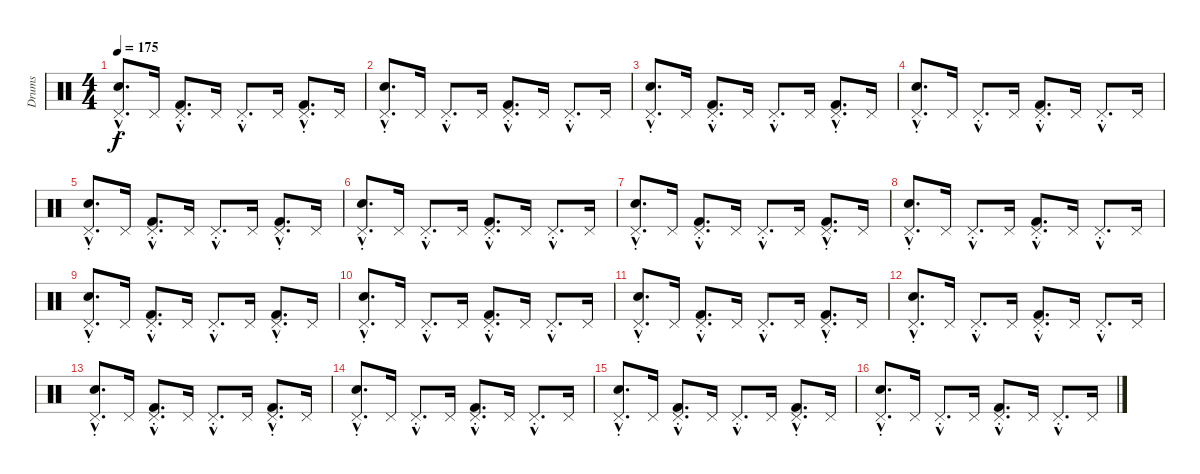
\track ("Drums" "Drums") {instrument percussion}
\staff {score}
\articulation defaults
\ts (4 4)
\tempo 175
\clef neutral
\ks c
("Electric Snare (hit)"{hac} "Pedal Hi-Hat (hit)"{hac st}).8{d dy f} "Pedal Hi-Hat (hit)".16 ("Pedal Hi-Hat (hit)"{hac st} "Kick (hit) 2"{hac}).8{d} "Pedal Hi-Hat (hit)".16 "Pedal Hi-Hat (hit)"{hac st}.8{d} "Pedal Hi-Hat (hit)".16 ("Kick (hit) 2"{hac} "Pedal Hi-Hat (hit)"{hac st}).8{d} "Pedal Hi-Hat (hit)".16 |
("Electric Snare (hit)"{hac} "Pedal Hi-Hat (hit)"{hac st}).8{d} "Pedal Hi-Hat (hit)".16 "Pedal Hi-Hat (hit)"{hac st}.8{d} "Pedal Hi-Hat (hit)".16 ("Pedal Hi-Hat (hit)"{hac st} "Kick (hit) 2"{hac}).8{d} "Pedal Hi-Hat (hit)".16 "Pedal Hi-Hat (hit)"{hac st}.8{d} "Pedal Hi-Hat (hit)".16 |
("Electric Snare (hit)"{hac} "Pedal Hi-Hat (hit)"{hac st}).8{d} "Pedal Hi-Hat (hit)".16 ("Pedal Hi-Hat (hit)"{hac st} "Kick (hit) 2"{hac}).8{d} "Pedal Hi-Hat (hit)".16 "Pedal Hi-Hat (hit)"{hac st}.8{d} "Pedal Hi-Hat (hit)".16 ("Kick (hit) 2"{hac} "Pedal Hi-Hat (hit)"{hac st}).8{d} "Pedal Hi-Hat (hit)".16 |
("Electric Snare (hit)"{hac} "Pedal Hi-Hat (hit)"{hac st}).8{d} "Pedal Hi-Hat (hit)".16 "Pedal Hi-Hat (hit)"{hac st}.8{d} "Pedal Hi-Hat (hit)".16 ("Pedal Hi-Hat (hit)"{hac st} "Kick (hit) 2"{hac}).8{d} "Pedal Hi-Hat (hit)".16 "Pedal Hi-Hat (hit)"{hac st}.8{d} "Pedal Hi-Hat (hit)".16 |
("Electric Snare (hit)"{hac} "Pedal Hi-Hat (hit)"{hac st}).8{d} "Pedal Hi-Hat (hit)".16 ("Pedal Hi-Hat (hit)"{hac st} "Kick (hit) 2"{hac}).8{d} "Pedal Hi-Hat (hit)".16 "Pedal Hi-Hat (hit)"{hac st}.8{d} "Pedal Hi-Hat (hit)".16 ("Kick (hit) 2"{hac} "Pedal Hi-Hat (hit)"{hac st}).8{d} "Pedal Hi-Hat (hit)".16 |
("Electric Snare (hit)"{hac} "Pedal Hi-Hat (hit)"{hac st}).8{d} "Pedal Hi-Hat (hit)".16 "Pedal Hi-Hat (hit)"{hac st}.8{d} "Pedal Hi-Hat (hit)".16 ("Pedal Hi-Hat (hit)"{hac st} "Kick (hit) 2"{hac}).8{d} "Pedal Hi-Hat (hit)".16 "Pedal Hi-Hat (hit)"{hac st}.8{d} "Pedal Hi-Hat (hit)".16 |
("Electric Snare (hit)"{hac} "Pedal Hi-Hat (hit)"{hac st}).8{d} "Pedal Hi-Hat (hit)".16 ("Pedal Hi-Hat (hit)"{hac st} "Kick (hit) 2"{hac}).8{d} "Pedal Hi-Hat (hit)".16 "Pedal Hi-Hat (hit)"{hac st}.8{d} "Pedal Hi-Hat (hit)".16 ("Kick (hit) 2"{hac} "Pedal Hi-Hat (hit)"{hac st}).8{d} "Pedal Hi-Hat (hit)".16 |
("Electric Snare (hit)"{hac} "Pedal Hi-Hat (hit)"{hac st}).8{d} "Pedal Hi-Hat (hit)".16 "Pedal Hi-Hat (hit)"{hac st}.8{d} "Pedal Hi-Hat (hit)".16 ("Pedal Hi-Hat (hit)"{hac st} "Kick (hit) 2"{hac}).8{d} "Pedal Hi-Hat (hit)".16 "Pedal Hi-Hat (hit)"{hac st}.8{d} "Pedal Hi-Hat (hit)".16 |
("Electric Snare (hit)"{hac} "Pedal Hi-Hat (hit)"{hac st}).8{d} "Pedal Hi-Hat (hit)".16 ("Pedal Hi-Hat (hit)"{hac st} "Kick (hit) 2"{hac}).8{d} "Pedal Hi-Hat (hit)".16 "Pedal Hi-Hat (hit)"{hac st}.8{d} "Pedal Hi-Hat (hit)".16 ("Kick (hit) 2"{hac} "Pedal Hi-Hat (hit)"{hac st}).8{d} "Pedal Hi-Hat (hit)".16 |
("Electric Snare (hit)"{hac} "Pedal Hi-Hat (hit)"{hac st}).8{d} "Pedal Hi-Hat (hit)".16 "Pedal Hi-Hat (hit)"{hac st}.8{d} "Pedal Hi-Hat (hit)".16 ("Pedal Hi-Hat (hit)"{hac st} "Kick (hit) 2"{hac}).8{d} "Pedal Hi-Hat (hit)".16 "Pedal Hi-Hat (hit)"{hac st}.8{d} "Pedal Hi-Hat (hit)".16 |
("Electric Snare (hit)"{hac} "Pedal Hi-Hat (hit)"{hac st}).8{d} "Pedal Hi-Hat (hit)".16 ("Pedal Hi-Hat (hit)"{hac st} "Kick (hit) 2"{hac}).8{d} "Pedal Hi-Hat (hit)".16 "Pedal Hi-Hat (hit)"{hac st}.8{d} "Pedal Hi-Hat (hit)".16 ("Kick (hit) 2"{hac} "Pedal Hi-Hat (hit)"{hac st}).8{d} "Pedal Hi-Hat (hit)".16 |
("Electric Snare (hit)"{hac} "Pedal Hi-Hat (hit)"{hac st}).8{d} "Pedal Hi-Hat (hit)".16 "Pedal Hi-Hat (hit)"{hac st}.8{d} "Pedal Hi-Hat (hit)".16 ("Pedal Hi-Hat (hit)"{hac st} "Kick (hit) 2"{hac}).8{d} "Pedal Hi-Hat (hit)".16 "Pedal Hi-Hat (hit)"{hac st}.8{d} "Pedal Hi-Hat (hit)".16 |
("Electric Snare (hit)"{hac} "Pedal Hi-Hat (hit)"{hac st}).8{d} "Pedal Hi-Hat (hit)".16 ("Pedal Hi-Hat (hit)"{hac st} "Kick (hit) 2"{hac}).8{d} "Pedal Hi-Hat (hit)".16 "Pedal Hi-Hat (hit)"{hac st}.8{d} "Pedal Hi-Hat (hit)".16 ("Kick (hit) 2"{hac} "Pedal Hi-Hat (hit)"{hac st}).8{d} "Pedal Hi-Hat (hit)".16 |
("Electric Snare (hit)"{hac} "Pedal Hi-Hat (hit)"{hac st}).8{d} "Pedal Hi-Hat (hit)".16 "Pedal Hi-Hat (hit)"{hac st}.8{d} "Pedal Hi-Hat (hit)".16 ("Pedal Hi-Hat (hit)"{hac st} "Kick (hit) 2"{hac}).8{d} "Pedal Hi-Hat (hit)".16 "Pedal Hi-Hat (hit)"{hac st}.8{d} "Pedal Hi-Hat (hit)".16 |
("Electric Snare (hit)"{hac} "Pedal Hi-Hat (hit)"{hac st}).8{d} "Pedal Hi-Hat (hit)".16 ("Pedal Hi-Hat (hit)"{hac st} "Kick (hit) 2"{hac}).8{d} "Pedal Hi-Hat (hit)".16 "Pedal Hi-Hat (hit)"{hac st}.8{d} "Pedal Hi-Hat (hit)".16 ("Kick (hit) 2"{hac} "Pedal Hi-Hat (hit)"{hac st}).8{d} "Pedal Hi-Hat (hit)".16 |
("Electric Snare (hit)"{hac} "Pedal Hi-Hat (hit)"{hac st}).8{d} "Pedal Hi-Hat (hit)".16 "Pedal Hi-Hat (hit)"{hac st}.8{d} "Pedal Hi-Hat (hit)".16 ("Pedal Hi-Hat (hit)"{hac st} "Kick (hit) 2"{hac}).8{d} "Pedal Hi-Hat (hit)".16 "Pedal Hi-Hat (hit)"{hac st}.8{d} "Pedal Hi-Hat (hit)".16
